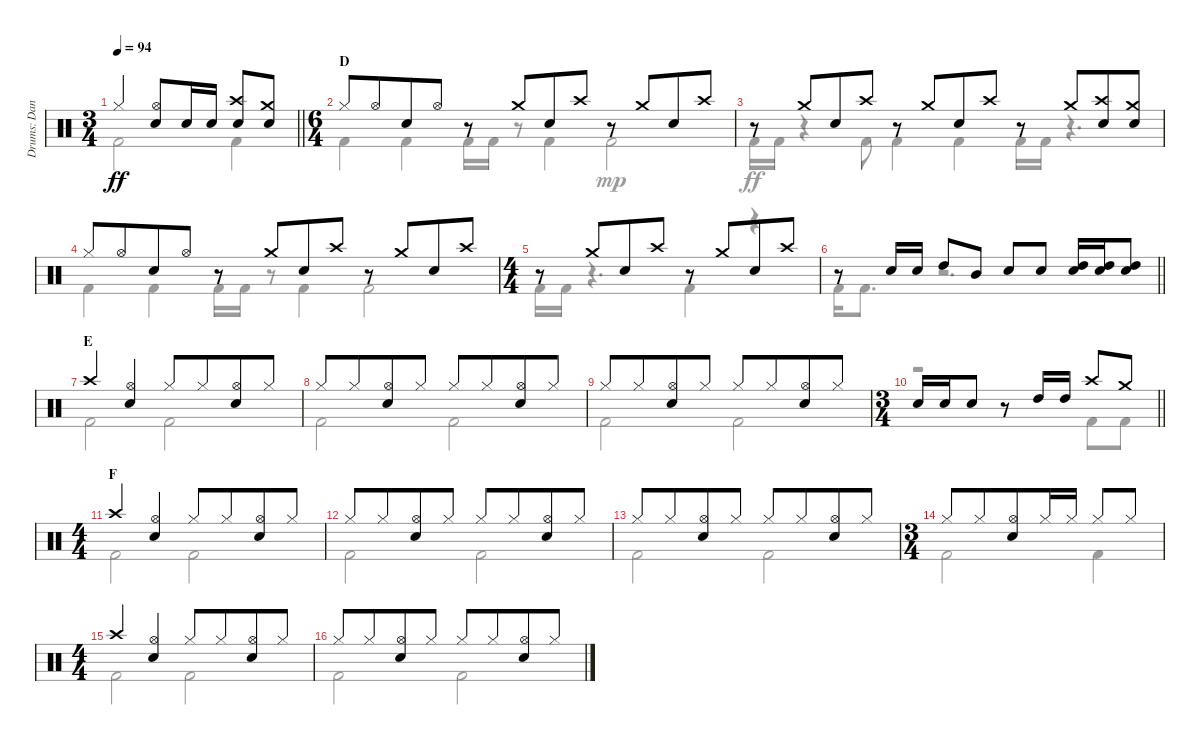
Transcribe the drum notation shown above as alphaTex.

\track ("Drums: Dana" "Drums: Dan") {instrument percussion}
\staff {score}
\articulation defaults
\voice
\ts (3 4)
\tempo 94
\clef neutral
\barLineRight lightlight
\ks c "Hi-Hat (closed)".4{dy ff beam merge}
("Hi-Hat (open)" "Snare (hit) 2").8 "Snare (hit) 2".16 "Snare (hit) 2".16 ("Crash high (hit)" "Snare (hit) 2").8 ("Crash medium (hit)" "Snare (hit) 2").8 |
\ts (6 4)
\section ("" "D")
"Hi-Hat (closed)".8 "Hi-Hat (open)".8{beam merge} "Snare (hit) 2".8 "Hi-Hat (open)".8 r.8 "Crash medium (hit)".8{beam merge} "Snare (hit) 2".8 "Crash high (hit)".8 r.8 "Crash medium (hit)".8{beam merge} "Snare (hit) 2".8 "Crash high (hit)".8 |
r.8 "Crash medium (hit)".8{beam merge} "Snare (hit) 2".8 "Crash high (hit)".8 r.8 "Crash medium (hit)".8{beam merge} "Snare (hit) 2".8 "Crash high (hit)".8 r.8 "Crash medium (hit)".8{beam merge} ("Crash high (hit)" "Snare (hit) 2").8 ("Crash medium (hit)" "Snare (hit) 2").8 |
"Hi-Hat (closed)".8 "Hi-Hat (open)".8{beam merge} "Snare (hit) 2".8 "Hi-Hat (open)".8 r.8 "Crash medium (hit)".8{beam merge} "Snare (hit) 2".8 "Crash high (hit)".8 r.8 "Crash medium (hit)".8{beam merge} "Snare (hit) 2".8 "Crash high (hit)".8 |
\ts (4 4)
r.8 "Crash medium (hit)".8{beam merge} "Snare (hit) 2".8 "Crash high (hit)".8 r.8 "Crash medium (hit)".8{beam merge} "Snare (hit) 2".8 "Crash high (hit)".8 |
\barLineRight lightlight
r.8 "Snare (hit) 2".16 "Snare (hit) 2".16 "High Tom (hit)".8 "Mid Tom (hit)".8 "Snare (hit) 2".8 "Snare (hit) 2".8 ("Snare (hit) 2" "High Tom (hit)").16 ("Snare (hit) 2" "High Tom (hit)").16 ("Snare (hit) 2" "High Tom (hit)").8 |
\section ("" "E")
"Crash high (hit)".4 ("Hi-Hat (open)" "Snare (hit) 2").4 "Hi-Hat (closed)".8 "Hi-Hat (closed)".8{beam merge} ("Hi-Hat (open)" "Snare (hit) 2").8 "Hi-Hat (closed)".8 |
"Hi-Hat (closed)".8 "Hi-Hat (closed)".8{beam merge} ("Hi-Hat (open)" "Snare (hit) 2").8 "Hi-Hat (closed)".8 "Hi-Hat (closed)".8 "Hi-Hat (closed)".8{beam merge} ("Hi-Hat (open)" "Snare (hit) 2").8 "Hi-Hat (closed)".8 |
"Hi-Hat (closed)".8 "Hi-Hat (closed)".8{beam merge} ("Hi-Hat (open)" "Snare (hit) 2").8 "Hi-Hat (closed)".8 "Hi-Hat (closed)".8 "Hi-Hat (closed)".8{beam merge} ("Hi-Hat (open)" "Snare (hit) 2").8 "Hi-Hat (closed)".8 |
\ts (3 4)
\barLineRight lightlight "Snare (hit) 2".16 "Snare (hit) 2".16 "Snare (hit) 2".8
r.8 "High Tom (hit)".16 "High Tom (hit)".16 "Crash high (hit)".8 "Crash medium (hit)".8 |
\ts (4 4)
\section ("" "F")
"Crash high (hit)".4 ("Hi-Hat (open)" "Snare (hit) 2").4 "Hi-Hat (closed)".8 "Hi-Hat (closed)".8{beam merge} ("Hi-Hat (open)" "Snare (hit) 2").8 "Hi-Hat (closed)".8 |
"Hi-Hat (closed)".8 "Hi-Hat (closed)".8{beam merge} ("Hi-Hat (open)" "Snare (hit) 2").8 "Hi-Hat (closed)".8 "Hi-Hat (closed)".8 "Hi-Hat (closed)".8{beam merge} ("Hi-Hat (open)" "Snare (hit) 2").8 "Hi-Hat (closed)".8 |
"Hi-Hat (closed)".8 "Hi-Hat (closed)".8{beam merge} ("Hi-Hat (open)" "Snare (hit) 2").8 "Hi-Hat (closed)".8 "Hi-Hat (closed)".8 "Hi-Hat (closed)".8{beam merge} ("Hi-Hat (open)" "Snare (hit) 2").8 "Hi-Hat (closed)".8 |
\ts (3 4)
"Hi-Hat (closed)".8 "Hi-Hat (closed)".8{beam merge} ("Hi-Hat (open)" "Snare (hit) 2").8 "Hi-Hat (closed)".16 "Hi-Hat (closed)".16 "Hi-Hat (closed)".8 "Hi-Hat (closed)".8 |
\ts (4 4)
"Crash high (hit)".4 ("Hi-Hat (open)" "Snare (hit) 2").4 "Hi-Hat (closed)".8 "Hi-Hat (closed)".8{beam merge} ("Hi-Hat (open)" "Snare (hit) 2").8 "Hi-Hat (closed)".8 |
"Hi-Hat (closed)".8 "Hi-Hat (closed)".8{beam merge} ("Hi-Hat (open)" "Snare (hit) 2").8 "Hi-Hat (closed)".8 "Hi-Hat (closed)".8 "Hi-Hat (closed)".8{beam merge} ("Hi-Hat (open)" "Snare (hit) 2").8 "Hi-Hat (closed)".8
\voice
\clef neutral
\ottava regular
\simile none
\barLineRight lightlight
\ks c "Kick (hit) 2".2{dy ff} "Kick (hit) 2".4
|
"Kick (hit) 2".4 "Kick (hit) 2".4 "Kick (hit) 2".16 "Kick (hit) 2".16 r.8 "Kick (hit) 2".4 "Kick (hit) 2".2{dy mp} |
"Kick (hit) 2".16{dy ff} "Kick (hit) 2".16 r.4 "Kick (hit) 2".8 "Kick (hit) 2".4 "Kick (hit) 2".4 "Kick (hit) 2".16 "Kick (hit) 2".16 r.4{d} |
"Kick (hit) 2".4 "Kick (hit) 2".4 "Kick (hit) 2".16 "Kick (hit) 2".16 r.8 "Kick (hit) 2".4 "Kick (hit) 2".2 |
"Kick (hit) 2".16 "Kick (hit) 2".16 r.4{d} "Kick (hit) 2".4 r.4 |
\barLineRight lightlight "Kick (hit) 2".16 "Kick (hit) 2".8{d}
r.2{d} |
"Kick (hit) 2".2 "Kick (hit) 2".2 |
"Kick (hit) 2".2 "Kick (hit) 2".2 |
"Kick (hit) 2".2 "Kick (hit) 2".2 |
\barLineRight lightlight
r.2 "Kick (hit) 2".8 "Kick (hit) 2".8 |
"Kick (hit) 2".2 "Kick (hit) 2".2 |
"Kick (hit) 2".2 "Kick (hit) 2".2 |
"Kick (hit) 2".2 "Kick (hit) 2".2 |
"Kick (hit) 2".2 "Kick (hit) 2".4 |
"Kick (hit) 2".2 "Kick (hit) 2".2 |
"Kick (hit) 2".2 "Kick (hit) 2".2
